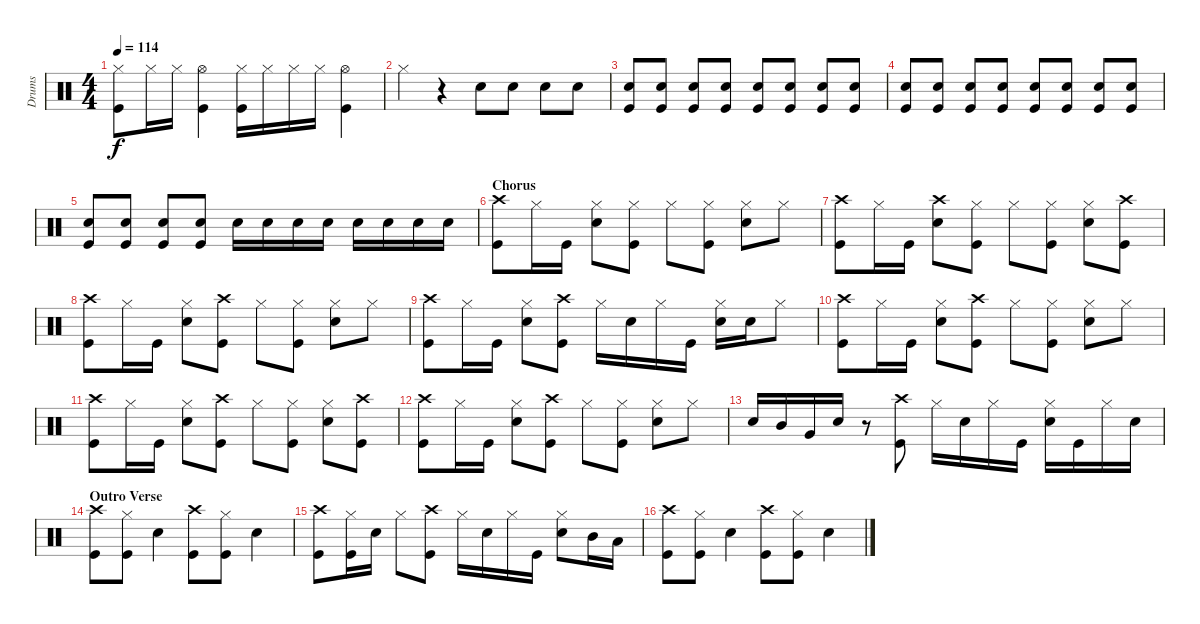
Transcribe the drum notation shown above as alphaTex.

\track ("Drums" "Drums") {instrument percussion}
\staff {score}
\articulation defaults
\ts (4 4)
\tempo 114
\clef neutral
\ks c
("Hi-Hat (closed)" "Kick (hit)").8{dy f} "Hi-Hat (closed)".16 "Hi-Hat (closed)".16 ("Hi-Hat (open)" "Kick (hit)").4 ("Hi-Hat (closed)" "Kick (hit)").16 "Hi-Hat (closed)".16 "Hi-Hat (closed)".16 "Hi-Hat (closed)".16 ("Hi-Hat (open)" "Kick (hit)").4 |
"Hi-Hat (closed)".4{volume 4} r.4 "Snare (hit) 2".8 "Snare (hit) 2".8 "Snare (hit) 2".8 "Snare (hit) 2".8 |
("Snare (hit) 2" "Kick (hit)").8{volume 8} ("Snare (hit) 2" "Kick (hit)").8 ("Snare (hit) 2" "Kick (hit)").8 ("Snare (hit) 2" "Kick (hit)").8 ("Snare (hit) 2" "Kick (hit)").8 ("Snare (hit) 2" "Kick (hit)").8 ("Snare (hit) 2" "Kick (hit)").8 ("Snare (hit) 2" "Kick (hit)").8 |
("Snare (hit) 2" "Kick (hit)").8{volume 10} ("Snare (hit) 2" "Kick (hit)").8 ("Snare (hit) 2" "Kick (hit)").8 ("Snare (hit) 2" "Kick (hit)").8 ("Snare (hit) 2" "Kick (hit)").8 ("Snare (hit) 2" "Kick (hit)").8 ("Snare (hit) 2" "Kick (hit)").8 ("Snare (hit) 2" "Kick (hit)").8 |
("Snare (hit) 2" "Kick (hit)").8{volume 13} ("Snare (hit) 2" "Kick (hit)").8 ("Snare (hit) 2" "Kick (hit)").8 ("Snare (hit) 2" "Kick (hit)").8 "Snare (hit) 2".16 "Snare (hit) 2".16 "Snare (hit) 2".16 "Snare (hit) 2".16 "Snare (hit) 2".16 "Snare (hit) 2".16 "Snare (hit) 2".16 "Snare (hit) 2".16 |
\section ("" "Chorus")
("Crash high (hit)" "Kick (hit)").8 "Hi-Hat (closed)".16 "Kick (hit)".16 ("Hi-Hat (closed)" "Snare (hit) 2").8 ("Hi-Hat (closed)" "Kick (hit)").8 "Hi-Hat (closed)".8 ("Hi-Hat (closed)" "Kick (hit)").8 ("Hi-Hat (closed)" "Snare (hit) 2").8 "Hi-Hat (closed)".8 |
("Crash high (hit)" "Kick (hit)").8 "Hi-Hat (closed)".16 "Kick (hit)".16 ("Crash high (hit)" "Snare (hit) 2").8 ("Hi-Hat (closed)" "Kick (hit)").8 "Hi-Hat (closed)".8 ("Hi-Hat (closed)" "Kick (hit)").8 ("Hi-Hat (closed)" "Snare (hit) 2").8 ("Crash high (hit)" "Kick (hit)").8 |
("Crash high (hit)" "Kick (hit)").8 "Hi-Hat (closed)".16 "Kick (hit)".16 ("Hi-Hat (closed)" "Snare (hit) 2").8 ("Crash high (hit)" "Kick (hit)").8 "Hi-Hat (closed)".8 ("Hi-Hat (closed)" "Kick (hit)").8 ("Hi-Hat (closed)" "Snare (hit) 2").8 "Hi-Hat (closed)".8 |
("Crash high (hit)" "Kick (hit)").8 "Hi-Hat (closed)".16 "Kick (hit)".16 ("Hi-Hat (closed)" "Snare (hit) 2").8 ("Crash high (hit)" "Kick (hit)").8 "Hi-Hat (closed)".16 "Snare (hit) 2".16 "Hi-Hat (closed)".16 "Kick (hit)".16 ("Hi-Hat (closed)" "Snare (hit) 2").16 "Snare (hit) 2".16 "Hi-Hat (closed)".8 |
("Crash high (hit)" "Kick (hit)").8 "Hi-Hat (closed)".16 "Kick (hit)".16 ("Hi-Hat (closed)" "Snare (hit) 2").8 ("Crash high (hit)" "Kick (hit)").8 "Hi-Hat (closed)".8 ("Hi-Hat (closed)" "Kick (hit)").8 ("Hi-Hat (closed)" "Snare (hit) 2").8 "Hi-Hat (closed)".8 |
("Crash high (hit)" "Kick (hit)").8 "Hi-Hat (closed)".16 "Kick (hit)".16 ("Hi-Hat (closed)" "Snare (hit) 2").8 ("Crash high (hit)" "Kick (hit)").8 "Hi-Hat (closed)".8 ("Hi-Hat (closed)" "Kick (hit)").8 ("Hi-Hat (closed)" "Snare (hit) 2").8 ("Crash high (hit)" "Kick (hit)").8 |
("Crash high (hit)" "Kick (hit)").8 "Hi-Hat (closed)".16 "Kick (hit)".16 ("Hi-Hat (closed)" "Snare (hit) 2").8 ("Crash high (hit)" "Kick (hit)").8 "Hi-Hat (closed)".8 ("Hi-Hat (closed)" "Kick (hit)").8 ("Hi-Hat (closed)" "Snare (hit) 2").8 "Hi-Hat (closed)".8 |
"Snare (hit) 2".16 "Mid Tom (hit)".16 "Very Low Tom (hit)".16 "Snare (hit) 2".16 r.8 ("Crash high (hit)" "Kick (hit)").8 "Hi-Hat (closed)".16 "Snare (hit) 2".16 "Hi-Hat (closed)".16 "Kick (hit)".16 ("Hi-Hat (closed)" "Snare (hit) 2").16 "Kick (hit)".16 "Hi-Hat (closed)".16 "Snare (hit) 2".16 |
\section ("" "Outro Verse")
("Crash high (hit)" "Kick (hit)").8 ("Hi-Hat (closed)" "Kick (hit)").8 "Snare (hit) 2".4 ("Crash high (hit)" "Kick (hit)").8 ("Hi-Hat (closed)" "Kick (hit)").8 "Snare (hit) 2".4 |
("Crash high (hit)" "Kick (hit)").8 ("Hi-Hat (closed)" "Kick (hit)").16 "Snare (hit) 2".16 "Hi-Hat (closed)".8 ("Crash high (hit)" "Kick (hit)").8 "Hi-Hat (closed)".16 "Snare (hit) 2".16 "Hi-Hat (closed)".16 "Kick (hit)".16 ("Hi-Hat (closed)" "Snare (hit) 2").8 "Mid Tom (hit)".16 "Low Tom (hit)".16 |
("Crash high (hit)" "Kick (hit)").8 ("Hi-Hat (closed)" "Kick (hit)").8 "Snare (hit) 2".4 ("Crash high (hit)" "Kick (hit)").8 ("Hi-Hat (closed)" "Kick (hit)").8 "Snare (hit) 2".4
